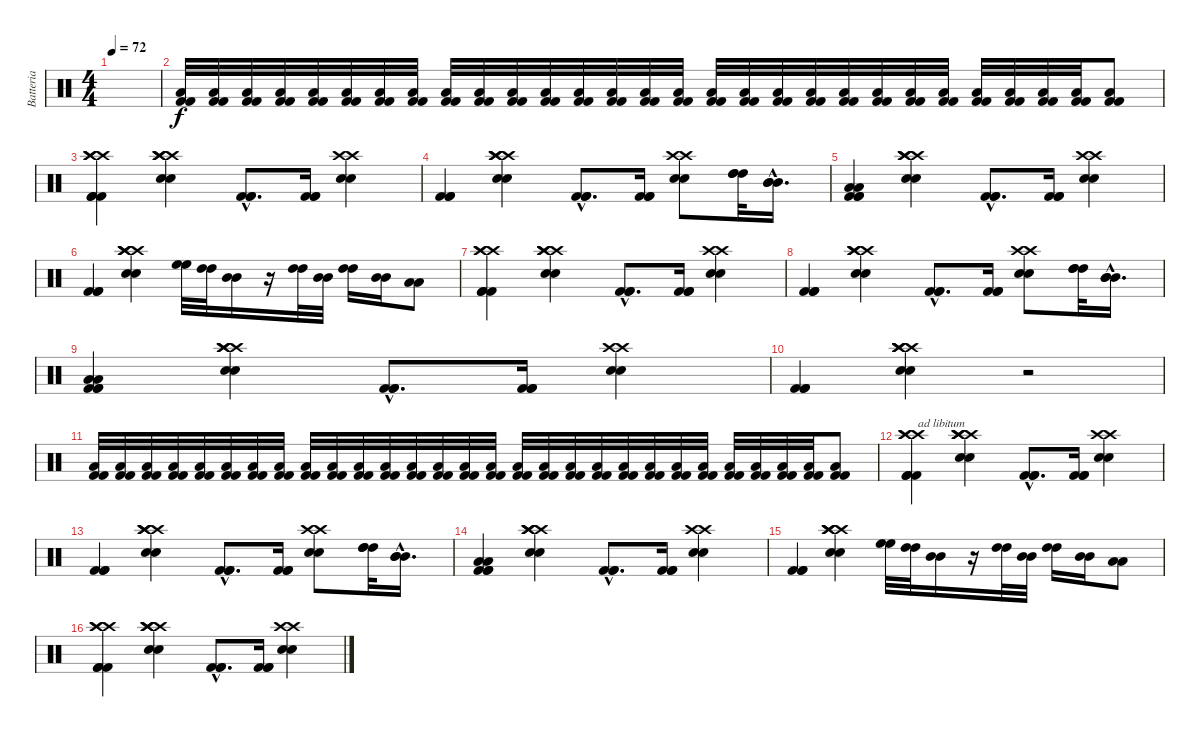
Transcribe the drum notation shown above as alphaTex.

\track ("Batteria" "Batteria") {instrument percussion}
\staff {score}
\articulation defaults
\ts (4 4)
\tempo 72
\clef neutral
\ks c
|
("Kick (hit) 2" "Kick (hit) 2" "Low Floor Tom (hit)").32{volume 2} ("Kick (hit) 2" "Kick (hit) 2" "Low Floor Tom (hit)").32 ("Kick (hit) 2" "Kick (hit) 2" "Low Floor Tom (hit)").32 ("Kick (hit) 2" "Kick (hit) 2" "Low Floor Tom (hit)").32{volume 4} ("Kick (hit) 2" "Kick (hit) 2" "Low Floor Tom (hit)").32 ("Kick (hit) 2" "Kick (hit) 2" "Low Floor Tom (hit)").32 ("Kick (hit) 2" "Kick (hit) 2" "Low Floor Tom (hit)").32{volume 6} ("Kick (hit) 2" "Kick (hit) 2" "Low Floor Tom (hit)").32 ("Kick (hit) 2" "Kick (hit) 2" "Low Floor Tom (hit)").32 ("Kick (hit) 2" "Kick (hit) 2" "Low Floor Tom (hit)").32{volume 8} ("Kick (hit) 2" "Kick (hit) 2" "Low Floor Tom (hit)").32 ("Kick (hit) 2" "Kick (hit) 2" "Low Floor Tom (hit)").32 ("Kick (hit) 2" "Kick (hit) 2" "Low Floor Tom (hit)").32{volume 10} ("Kick (hit) 2" "Kick (hit) 2" "Low Floor Tom (hit)").32 ("Kick (hit) 2" "Kick (hit) 2" "Low Floor Tom (hit)").32 ("Kick (hit) 2" "Kick (hit) 2" "Low Floor Tom (hit)").32{volume 11} ("Kick (hit) 2" "Kick (hit) 2" "Low Floor Tom (hit)").32 ("Kick (hit) 2" "Kick (hit) 2" "Low Floor Tom (hit)").32 ("Kick (hit) 2" "Kick (hit) 2" "Low Floor Tom (hit)").32{volume 12} ("Kick (hit) 2" "Kick (hit) 2" "Low Floor Tom (hit)").32 ("Kick (hit) 2" "Kick (hit) 2" "Low Floor Tom (hit)").32 ("Kick (hit) 2" "Kick (hit) 2" "Low Floor Tom (hit)").32{volume 14} ("Kick (hit) 2" "Kick (hit) 2" "Low Floor Tom (hit)").32 ("Kick (hit) 2" "Kick (hit) 2" "Low Floor Tom (hit)").32 ("Kick (hit) 2" "Kick (hit) 2" "Low Floor Tom (hit)").32 ("Kick (hit) 2" "Kick (hit) 2" "Low Floor Tom (hit)").32 ("Kick (hit) 2" "Kick (hit) 2" "Low Floor Tom (hit)").32 ("Kick (hit) 2" "Kick (hit) 2" "Low Floor Tom (hit)").32 ("Kick (hit) 2" "Kick (hit) 2" "Low Floor Tom (hit)").8 |
("Crash high (hit)" "Crash high (hit)" "Crash high (hit)" "Kick (hit) 2" "Kick (hit) 2" "Kick (hit) 2").4{volume 11} ("Crash high (hit)" "Crash high (hit)" "Crash high (hit)" "Crash high (hit)" "Snare (hit) 2" "Snare (hit) 2").4 ("Kick (hit) 2"{hac} "Kick (hit) 2"{hac} "Kick (hit) 2"{hac}).8{d} ("Kick (hit) 2" "Kick (hit) 2" "Kick (hit) 2").16 ("Crash high (hit)" "Crash high (hit)" "Snare (hit) 2" "Snare (hit) 2").4 |
("Kick (hit) 2" "Kick (hit) 2" "Kick (hit) 2").4 ("Crash high (hit)" "Crash high (hit)" "Crash high (hit)" "Crash high (hit)" "Snare (hit) 2" "Snare (hit) 2").4 ("Kick (hit) 2"{hac} "Kick (hit) 2"{hac} "Kick (hit) 2"{hac}).8{d} ("Kick (hit) 2" "Kick (hit) 2" "Kick (hit) 2").16 ("Crash high (hit)" "Crash high (hit)" "Snare (hit) 2" "Snare (hit) 2").8 ("High Tom (hit)" "High Tom (hit)" "High Tom (hit)").32 ("Mid Tom (hit)"{hac} "Mid Tom (hit)"{hac} "Mid Tom (hit)"{hac}).16{d} |
("Low Tom (hit)" "Low Tom (hit)" "Kick (hit) 2" "Kick (hit) 2" "Kick (hit) 2").4 ("Crash high (hit)" "Crash high (hit)" "Crash high (hit)" "Crash high (hit)" "Snare (hit) 2" "Snare (hit) 2").4 ("Kick (hit) 2"{hac} "Kick (hit) 2"{hac} "Kick (hit) 2"{hac}).8{d} ("Kick (hit) 2" "Kick (hit) 2" "Kick (hit) 2").16 ("Crash high (hit)" "Crash high (hit)" "Snare (hit) 2" "Snare (hit) 2").4 |
("Kick (hit) 2" "Kick (hit) 2" "Kick (hit) 2").4 ("Crash high (hit)" "Crash high (hit)" "Crash high (hit)" "Crash high (hit)" "Snare (hit) 2" "Snare (hit) 2").4 ("High Floor Tom (hit)" "High Floor Tom (hit)").32 ("High Tom (hit)" "High Tom (hit)").32 ("Mid Tom (hit)" "Mid Tom (hit)").16 r.16 ("High Tom (hit)" "High Tom (hit)").32 ("Mid Tom (hit)" "Mid Tom (hit)").32 ("High Tom (hit)" "High Tom (hit)").16 ("Mid Tom (hit)" "Mid Tom (hit)").16 ("Low Tom (hit)" "Low Tom (hit)").8 |
("Crash high (hit)" "Crash high (hit)" "Crash high (hit)" "Kick (hit) 2" "Kick (hit) 2" "Kick (hit) 2").4{volume 11} ("Crash high (hit)" "Crash high (hit)" "Crash high (hit)" "Crash high (hit)" "Snare (hit) 2" "Snare (hit) 2").4 ("Kick (hit) 2"{hac} "Kick (hit) 2"{hac} "Kick (hit) 2"{hac}).8{d} ("Kick (hit) 2" "Kick (hit) 2" "Kick (hit) 2").16 ("Crash high (hit)" "Crash high (hit)" "Snare (hit) 2" "Snare (hit) 2").4 |
("Kick (hit) 2" "Kick (hit) 2" "Kick (hit) 2").4 ("Crash high (hit)" "Crash high (hit)" "Crash high (hit)" "Crash high (hit)" "Snare (hit) 2" "Snare (hit) 2").4 ("Kick (hit) 2"{hac} "Kick (hit) 2"{hac} "Kick (hit) 2"{hac}).8{d} ("Kick (hit) 2" "Kick (hit) 2" "Kick (hit) 2").16 ("Crash high (hit)" "Crash high (hit)" "Snare (hit) 2" "Snare (hit) 2").8 ("High Tom (hit)" "High Tom (hit)" "High Tom (hit)").32 ("Mid Tom (hit)"{hac} "Mid Tom (hit)"{hac} "Mid Tom (hit)"{hac}).16{d} |
("Low Tom (hit)" "Low Tom (hit)" "Kick (hit) 2" "Kick (hit) 2" "Kick (hit) 2").4 ("Crash high (hit)" "Crash high (hit)" "Crash high (hit)" "Crash high (hit)" "Snare (hit) 2" "Snare (hit) 2").4 ("Kick (hit) 2"{hac} "Kick (hit) 2"{hac} "Kick (hit) 2"{hac}).8{d} ("Kick (hit) 2" "Kick (hit) 2" "Kick (hit) 2").16 ("Crash high (hit)" "Crash high (hit)" "Snare (hit) 2" "Snare (hit) 2").4 |
("Kick (hit) 2" "Kick (hit) 2" "Kick (hit) 2").4 ("Crash high (hit)" "Crash high (hit)" "Crash high (hit)" "Crash high (hit)" "Snare (hit) 2" "Snare (hit) 2").4 r.2 |
("Kick (hit) 2" "Kick (hit) 2" "Low Floor Tom (hit)").32{volume 2} ("Kick (hit) 2" "Kick (hit) 2" "Low Floor Tom (hit)").32 ("Kick (hit) 2" "Kick (hit) 2" "Low Floor Tom (hit)").32 ("Kick (hit) 2" "Kick (hit) 2" "Low Floor Tom (hit)").32{volume 4} ("Kick (hit) 2" "Kick (hit) 2" "Low Floor Tom (hit)").32 ("Kick (hit) 2" "Kick (hit) 2" "Low Floor Tom (hit)").32 ("Kick (hit) 2" "Kick (hit) 2" "Low Floor Tom (hit)").32{volume 6} ("Kick (hit) 2" "Kick (hit) 2" "Low Floor Tom (hit)").32 ("Kick (hit) 2" "Kick (hit) 2" "Low Floor Tom (hit)").32 ("Kick (hit) 2" "Kick (hit) 2" "Low Floor Tom (hit)").32{volume 8} ("Kick (hit) 2" "Kick (hit) 2" "Low Floor Tom (hit)").32 ("Kick (hit) 2" "Kick (hit) 2" "Low Floor Tom (hit)").32 ("Kick (hit) 2" "Kick (hit) 2" "Low Floor Tom (hit)").32{volume 10} ("Kick (hit) 2" "Kick (hit) 2" "Low Floor Tom (hit)").32 ("Kick (hit) 2" "Kick (hit) 2" "Low Floor Tom (hit)").32 ("Kick (hit) 2" "Kick (hit) 2" "Low Floor Tom (hit)").32{volume 11} ("Kick (hit) 2" "Kick (hit) 2" "Low Floor Tom (hit)").32 ("Kick (hit) 2" "Kick (hit) 2" "Low Floor Tom (hit)").32 ("Kick (hit) 2" "Kick (hit) 2" "Low Floor Tom (hit)").32{volume 12} ("Kick (hit) 2" "Kick (hit) 2" "Low Floor Tom (hit)").32 ("Kick (hit) 2" "Kick (hit) 2" "Low Floor Tom (hit)").32 ("Kick (hit) 2" "Kick (hit) 2" "Low Floor Tom (hit)").32{volume 14} ("Kick (hit) 2" "Kick (hit) 2" "Low Floor Tom (hit)").32 ("Kick (hit) 2" "Kick (hit) 2" "Low Floor Tom (hit)").32 ("Kick (hit) 2" "Kick (hit) 2" "Low Floor Tom (hit)").32 ("Kick (hit) 2" "Kick (hit) 2" "Low Floor Tom (hit)").32 ("Kick (hit) 2" "Kick (hit) 2" "Low Floor Tom (hit)").32 ("Kick (hit) 2" "Kick (hit) 2" "Low Floor Tom (hit)").32 ("Kick (hit) 2" "Kick (hit) 2" "Low Floor Tom (hit)").8 |
("Crash high (hit)" "Crash high (hit)" "Crash high (hit)" "Kick (hit) 2" "Kick (hit) 2" "Kick (hit) 2").4{txt "ad libitum" volume 11} ("Crash high (hit)" "Crash high (hit)" "Crash high (hit)" "Crash high (hit)" "Snare (hit) 2" "Snare (hit) 2").4 ("Kick (hit) 2"{hac} "Kick (hit) 2"{hac} "Kick (hit) 2"{hac}).8{d} ("Kick (hit) 2" "Kick (hit) 2" "Kick (hit) 2").16 ("Crash high (hit)" "Crash high (hit)" "Snare (hit) 2" "Snare (hit) 2").4 |
("Kick (hit) 2" "Kick (hit) 2" "Kick (hit) 2").4 ("Crash high (hit)" "Crash high (hit)" "Crash high (hit)" "Crash high (hit)" "Snare (hit) 2" "Snare (hit) 2").4 ("Kick (hit) 2"{hac} "Kick (hit) 2"{hac} "Kick (hit) 2"{hac}).8{d} ("Kick (hit) 2" "Kick (hit) 2" "Kick (hit) 2").16 ("Crash high (hit)" "Crash high (hit)" "Snare (hit) 2" "Snare (hit) 2").8 ("High Tom (hit)" "High Tom (hit)" "High Tom (hit)").32 ("Mid Tom (hit)"{hac} "Mid Tom (hit)"{hac} "Mid Tom (hit)"{hac}).16{d} |
("Low Tom (hit)" "Low Tom (hit)" "Kick (hit) 2" "Kick (hit) 2" "Kick (hit) 2").4 ("Crash high (hit)" "Crash high (hit)" "Crash high (hit)" "Crash high (hit)" "Snare (hit) 2" "Snare (hit) 2").4 ("Kick (hit) 2"{hac} "Kick (hit) 2"{hac} "Kick (hit) 2"{hac}).8{d} ("Kick (hit) 2" "Kick (hit) 2" "Kick (hit) 2").16 ("Crash high (hit)" "Crash high (hit)" "Snare (hit) 2" "Snare (hit) 2").4 |
("Kick (hit) 2" "Kick (hit) 2" "Kick (hit) 2").4 ("Crash high (hit)" "Crash high (hit)" "Crash high (hit)" "Crash high (hit)" "Snare (hit) 2" "Snare (hit) 2").4 ("High Floor Tom (hit)" "High Floor Tom (hit)").32 ("High Tom (hit)" "High Tom (hit)").32 ("Mid Tom (hit)" "Mid Tom (hit)").16 r.16 ("High Tom (hit)" "High Tom (hit)").32 ("Mid Tom (hit)" "Mid Tom (hit)").32 ("High Tom (hit)" "High Tom (hit)").16 ("Mid Tom (hit)" "Mid Tom (hit)").16 ("Low Tom (hit)" "Low Tom (hit)").8 |
("Crash high (hit)" "Crash high (hit)" "Crash high (hit)" "Kick (hit) 2" "Kick (hit) 2" "Kick (hit) 2").4{volume 11} ("Crash high (hit)" "Crash high (hit)" "Crash high (hit)" "Crash high (hit)" "Snare (hit) 2" "Snare (hit) 2").4 ("Kick (hit) 2"{hac} "Kick (hit) 2"{hac} "Kick (hit) 2"{hac}).8{d} ("Kick (hit) 2" "Kick (hit) 2" "Kick (hit) 2").16 ("Crash high (hit)" "Crash high (hit)" "Snare (hit) 2" "Snare (hit) 2").4
